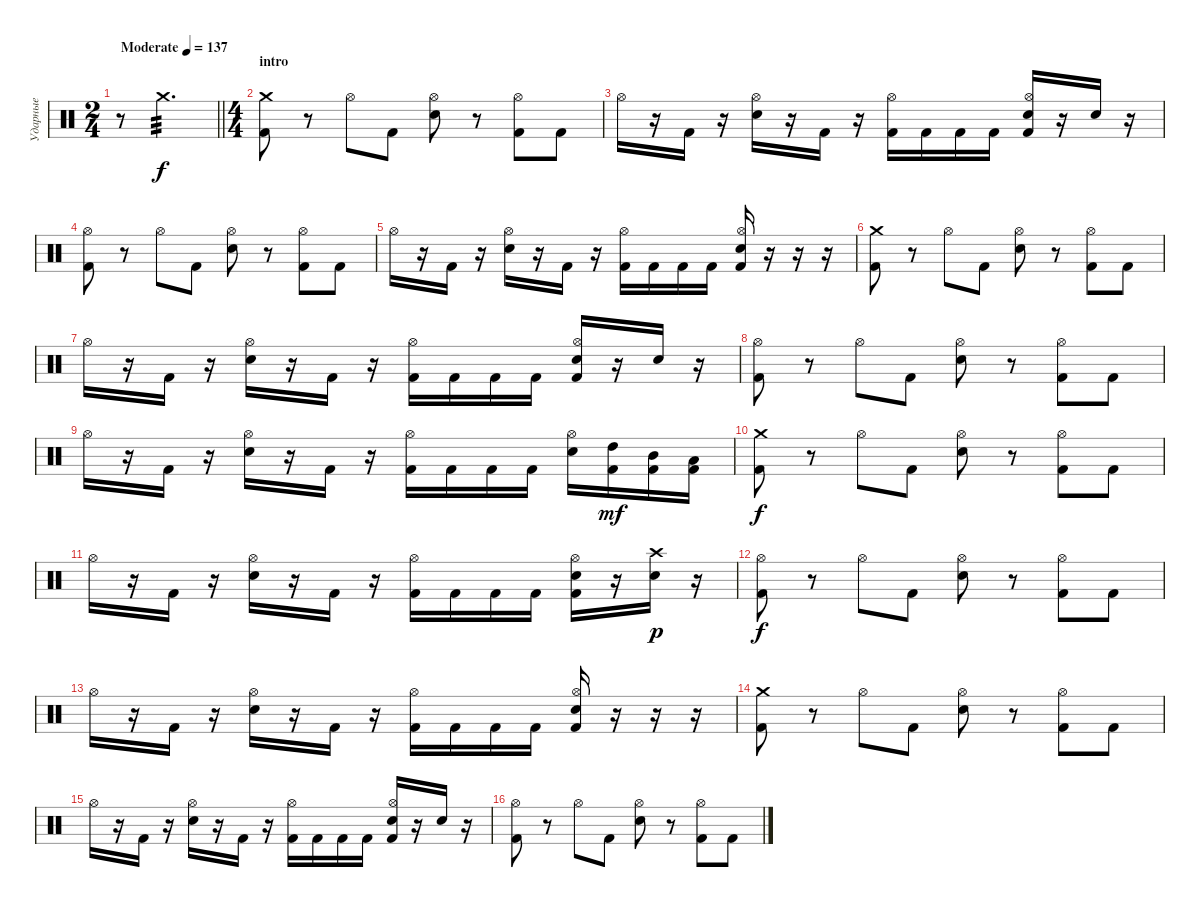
\track ("Ударные" "Ударные") {instrument percussion}
\staff {score}
\articulation defaults
\ts (2 4)
\tempo (137 "Moderate")
\clef neutral
\barLineRight lightlight
\ks c
r.8{dy f volume 0} "Crash medium (hit)".4{d tp 3 volume 13} |
\ts (4 4)
\section ("" "intro")
("Crash medium (hit)" "Kick (hit) 2").8 r.8 "Hi-Hat (open)".8 "Kick (hit) 2".8 ("Hi-Hat (open)" "Snare (hit) 2").8 r.8 ("Hi-Hat (open)" "Kick (hit) 2").8 "Kick (hit) 2".8 |
"Hi-Hat (open)".16 r.16 "Kick (hit) 2".16 r.16 ("Hi-Hat (open)" "Snare (hit) 2").16 r.16 "Kick (hit) 2".16 r.16 ("Hi-Hat (open)" "Kick (hit) 2").16 "Kick (hit) 2".16 "Kick (hit) 2".16 "Kick (hit) 2".16 ("Hi-Hat (open)" "Snare (hit) 2" "Kick (hit) 2").16 r.16 "Snare (hit) 2".16 r.16 |
("Hi-Hat (open)" "Kick (hit) 2").8 r.8 "Hi-Hat (open)".8 "Kick (hit) 2".8 ("Hi-Hat (open)" "Snare (hit) 2").8 r.8 ("Hi-Hat (open)" "Kick (hit) 2").8 "Kick (hit) 2".8 |
"Hi-Hat (open)".16 r.16 "Kick (hit) 2".16 r.16 ("Hi-Hat (open)" "Snare (hit) 2").16 r.16 "Kick (hit) 2".16 r.16 ("Hi-Hat (open)" "Kick (hit) 2").16 "Kick (hit) 2".16 "Kick (hit) 2".16 "Kick (hit) 2".16 ("Hi-Hat (open)" "Snare (hit) 2" "Kick (hit) 2").16 r.16 r.16 r.16 |
("Crash medium (hit)" "Kick (hit) 2").8 r.8 "Hi-Hat (open)".8 "Kick (hit) 2".8 ("Hi-Hat (open)" "Snare (hit) 2").8 r.8 ("Hi-Hat (open)" "Kick (hit) 2").8 "Kick (hit) 2".8 |
"Hi-Hat (open)".16 r.16 "Kick (hit) 2".16 r.16 ("Hi-Hat (open)" "Snare (hit) 2").16 r.16 "Kick (hit) 2".16 r.16 ("Hi-Hat (open)" "Kick (hit) 2").16 "Kick (hit) 2".16 "Kick (hit) 2".16 "Kick (hit) 2".16 ("Hi-Hat (open)" "Snare (hit) 2" "Kick (hit) 2").16 r.16 "Snare (hit) 2".16 r.16 |
("Hi-Hat (open)" "Kick (hit) 2").8 r.8 "Hi-Hat (open)".8 "Kick (hit) 2".8 ("Hi-Hat (open)" "Snare (hit) 2").8 r.8 ("Hi-Hat (open)" "Kick (hit) 2").8 "Kick (hit) 2".8 |
"Hi-Hat (open)".16 r.16 "Kick (hit) 2".16 r.16 ("Hi-Hat (open)" "Snare (hit) 2").16 r.16 "Kick (hit) 2".16 r.16 ("Hi-Hat (open)" "Kick (hit) 2").16 "Kick (hit) 2".16 "Kick (hit) 2".16 "Kick (hit) 2".16 ("Hi-Hat (open)" "Snare (hit) 2").16 ("High Tom (hit)" "Kick (hit) 2").16{dy mf} ("Mid Tom (hit)" "Kick (hit) 2").16 ("Low Tom (hit)" "Kick (hit) 2").16 |
("Crash medium (hit)" "Kick (hit) 2").8{dy f} r.8 "Hi-Hat (open)".8 "Kick (hit) 2".8 ("Hi-Hat (open)" "Snare (hit) 2").8 r.8 ("Hi-Hat (open)" "Kick (hit) 2").8 "Kick (hit) 2".8 |
"Hi-Hat (open)".16 r.16 "Kick (hit) 2".16 r.16 ("Hi-Hat (open)" "Snare (hit) 2").16 r.16 "Kick (hit) 2".16 r.16 ("Hi-Hat (open)" "Kick (hit) 2").16 "Kick (hit) 2".16 "Kick (hit) 2".16 "Kick (hit) 2".16 ("Hi-Hat (open)" "Snare (hit) 2" "Kick (hit) 2").16 r.16 ("Crash high (hit)" "Snare (hit) 2").16{dy p} r.16 |
("Hi-Hat (open)" "Kick (hit) 2").8{dy f} r.8 "Hi-Hat (open)".8 "Kick (hit) 2".8 ("Hi-Hat (open)" "Snare (hit) 2").8 r.8 ("Hi-Hat (open)" "Kick (hit) 2").8 "Kick (hit) 2".8 |
"Hi-Hat (open)".16 r.16 "Kick (hit) 2".16 r.16 ("Hi-Hat (open)" "Snare (hit) 2").16 r.16 "Kick (hit) 2".16 r.16 ("Hi-Hat (open)" "Kick (hit) 2").16 "Kick (hit) 2".16 "Kick (hit) 2".16 "Kick (hit) 2".16 ("Hi-Hat (open)" "Snare (hit) 2" "Kick (hit) 2").16 r.16 r.16 r.16 |
("Crash medium (hit)" "Kick (hit) 2").8 r.8 "Hi-Hat (open)".8 "Kick (hit) 2".8 ("Hi-Hat (open)" "Snare (hit) 2").8 r.8 ("Hi-Hat (open)" "Kick (hit) 2").8 "Kick (hit) 2".8 |
"Hi-Hat (open)".16 r.16 "Kick (hit) 2".16 r.16 ("Hi-Hat (open)" "Snare (hit) 2").16 r.16 "Kick (hit) 2".16 r.16 ("Hi-Hat (open)" "Kick (hit) 2").16 "Kick (hit) 2".16 "Kick (hit) 2".16 "Kick (hit) 2".16 ("Hi-Hat (open)" "Snare (hit) 2" "Kick (hit) 2").16 r.16 "Snare (hit) 2".16 r.16 |
("Hi-Hat (open)" "Kick (hit) 2").8 r.8 "Hi-Hat (open)".8 "Kick (hit) 2".8 ("Hi-Hat (open)" "Snare (hit) 2").8 r.8 ("Hi-Hat (open)" "Kick (hit) 2").8 "Kick (hit) 2".8
